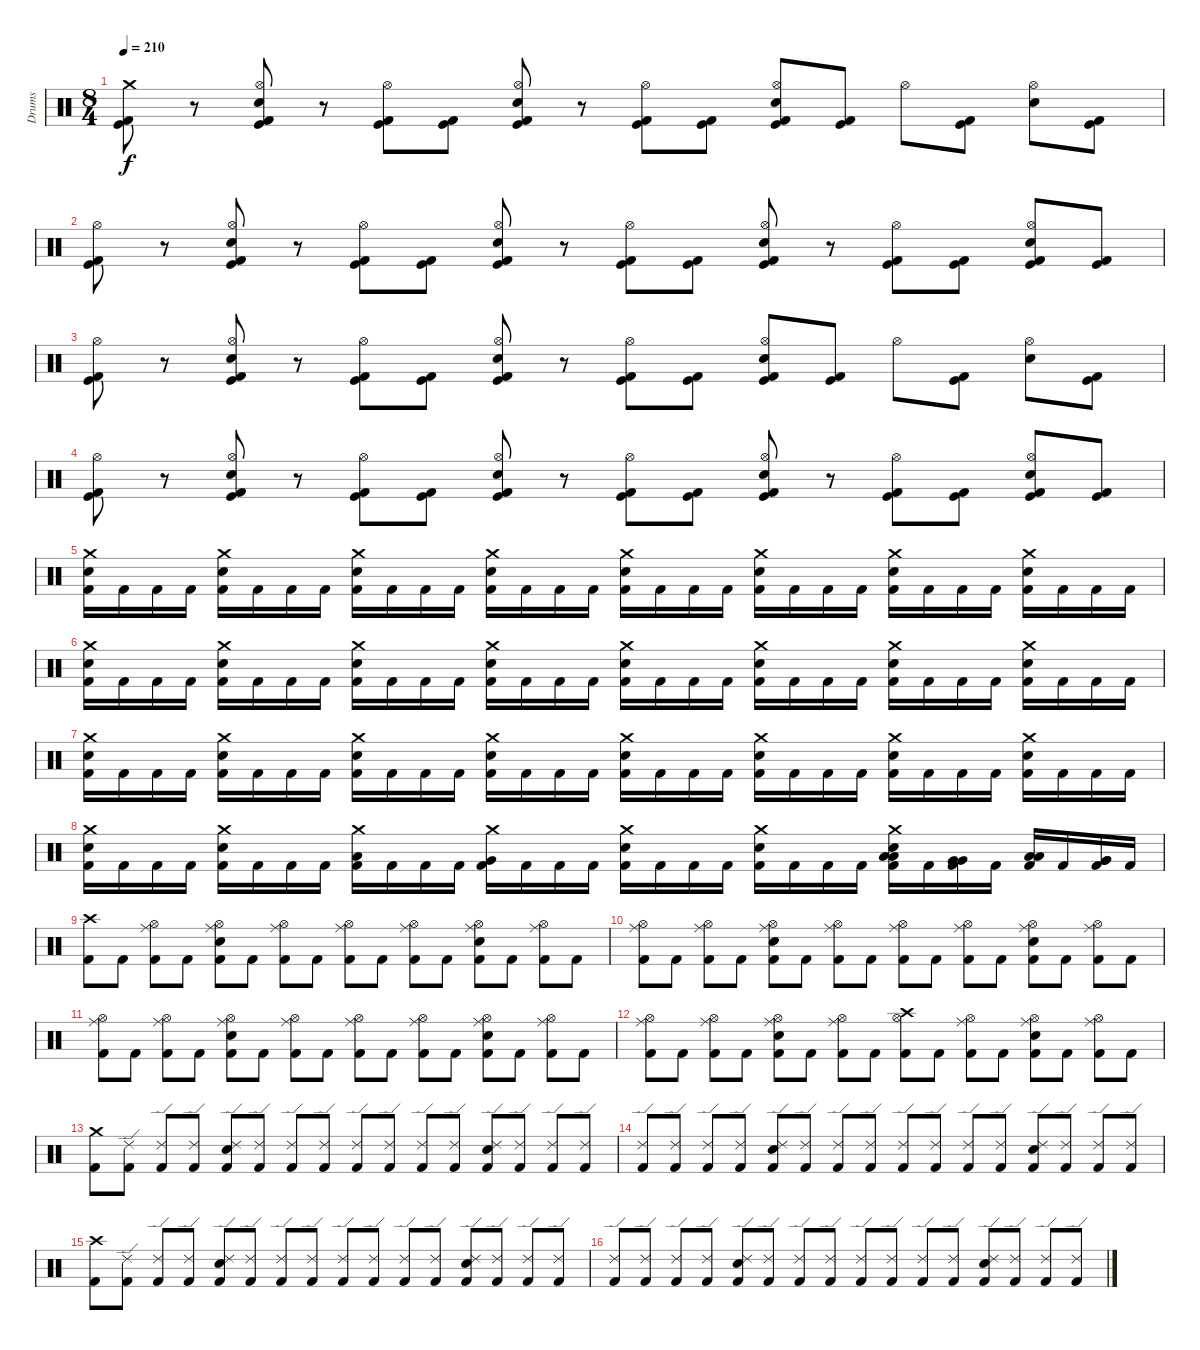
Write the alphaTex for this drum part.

\track ("Drums" "Drums") {instrument percussion}
\staff {score}
\articulation defaults
\ts (8 4)
\tempo 210
\clef neutral
\ks c
("Crash medium (hit)" "Kick (hit)" "Kick (hit) 2").8{dy f} r.8 ("Hi-Hat (open)" "Electric Snare (hit)" "Kick (hit)" "Kick (hit) 2").8 r.8 ("Hi-Hat (open)" "Kick (hit)" "Kick (hit) 2").8 ("Kick (hit)" "Kick (hit) 2").8 ("Hi-Hat (open)" "Electric Snare (hit)" "Kick (hit)" "Kick (hit) 2").8 r.8 ("Hi-Hat (open)" "Kick (hit)" "Kick (hit) 2").8 ("Kick (hit)" "Kick (hit) 2").8 ("Hi-Hat (open)" "Electric Snare (hit)" "Kick (hit)" "Kick (hit) 2").8 ("Kick (hit)" "Kick (hit) 2").8 "Hi-Hat (open)".8 ("Kick (hit)" "Kick (hit) 2").8 ("Hi-Hat (open)" "Electric Snare (hit)").8 ("Kick (hit)" "Kick (hit) 2").8 |
("Hi-Hat (open)" "Kick (hit)" "Kick (hit) 2").8 r.8 ("Hi-Hat (open)" "Electric Snare (hit)" "Kick (hit)" "Kick (hit) 2").8 r.8 ("Hi-Hat (open)" "Kick (hit)" "Kick (hit) 2").8 ("Kick (hit)" "Kick (hit) 2").8 ("Hi-Hat (open)" "Electric Snare (hit)" "Kick (hit)" "Kick (hit) 2").8 r.8 ("Hi-Hat (open)" "Kick (hit)" "Kick (hit) 2").8 ("Kick (hit)" "Kick (hit) 2").8 ("Hi-Hat (open)" "Electric Snare (hit)" "Kick (hit)" "Kick (hit) 2").8 r.8 ("Hi-Hat (open)" "Kick (hit)" "Kick (hit) 2").8 ("Kick (hit)" "Kick (hit) 2").8 ("Hi-Hat (open)" "Electric Snare (hit)" "Kick (hit)" "Kick (hit) 2").8 ("Kick (hit)" "Kick (hit) 2").8 |
("Hi-Hat (open)" "Kick (hit)" "Kick (hit) 2").8 r.8 ("Hi-Hat (open)" "Electric Snare (hit)" "Kick (hit)" "Kick (hit) 2").8 r.8 ("Hi-Hat (open)" "Kick (hit)" "Kick (hit) 2").8 ("Kick (hit)" "Kick (hit) 2").8 ("Hi-Hat (open)" "Electric Snare (hit)" "Kick (hit)" "Kick (hit) 2").8 r.8 ("Hi-Hat (open)" "Kick (hit)" "Kick (hit) 2").8 ("Kick (hit)" "Kick (hit) 2").8 ("Hi-Hat (open)" "Electric Snare (hit)" "Kick (hit)" "Kick (hit) 2").8 ("Kick (hit)" "Kick (hit) 2").8 "Hi-Hat (open)".8 ("Kick (hit)" "Kick (hit) 2").8 ("Hi-Hat (open)" "Electric Snare (hit)").8 ("Kick (hit)" "Kick (hit) 2").8 |
("Hi-Hat (open)" "Kick (hit)" "Kick (hit) 2").8 r.8 ("Hi-Hat (open)" "Electric Snare (hit)" "Kick (hit)" "Kick (hit) 2").8 r.8 ("Hi-Hat (open)" "Kick (hit)" "Kick (hit) 2").8 ("Kick (hit)" "Kick (hit) 2").8 ("Hi-Hat (open)" "Electric Snare (hit)" "Kick (hit)" "Kick (hit) 2").8 r.8 ("Hi-Hat (open)" "Kick (hit)" "Kick (hit) 2").8 ("Kick (hit)" "Kick (hit) 2").8 ("Hi-Hat (open)" "Electric Snare (hit)" "Kick (hit)" "Kick (hit) 2").8 r.8 ("Hi-Hat (open)" "Kick (hit)" "Kick (hit) 2").8 ("Kick (hit)" "Kick (hit) 2").8 ("Hi-Hat (open)" "Electric Snare (hit)" "Kick (hit)" "Kick (hit) 2").8 ("Kick (hit)" "Kick (hit) 2").8 |
("Crash medium (hit)" "Electric Snare (hit)" "Kick (hit) 2").16 "Kick (hit) 2".16 "Kick (hit) 2".16 "Kick (hit) 2".16 ("Crash medium (hit)" "Electric Snare (hit)" "Kick (hit) 2").16 "Kick (hit) 2".16 "Kick (hit) 2".16 "Kick (hit) 2".16 ("Crash medium (hit)" "Electric Snare (hit)" "Kick (hit) 2").16 "Kick (hit) 2".16 "Kick (hit) 2".16 "Kick (hit) 2".16 ("Crash medium (hit)" "Electric Snare (hit)" "Kick (hit) 2").16 "Kick (hit) 2".16 "Kick (hit) 2".16 "Kick (hit) 2".16 ("Crash medium (hit)" "Electric Snare (hit)" "Kick (hit) 2").16 "Kick (hit) 2".16 "Kick (hit) 2".16 "Kick (hit) 2".16 ("Crash medium (hit)" "Electric Snare (hit)" "Kick (hit) 2").16 "Kick (hit) 2".16 "Kick (hit) 2".16 "Kick (hit) 2".16 ("Crash medium (hit)" "Electric Snare (hit)" "Kick (hit) 2").16 "Kick (hit) 2".16 "Kick (hit) 2".16 "Kick (hit) 2".16 ("Crash medium (hit)" "Electric Snare (hit)" "Kick (hit) 2").16 "Kick (hit) 2".16 "Kick (hit) 2".16 "Kick (hit) 2".16 |
("Crash medium (hit)" "Electric Snare (hit)" "Kick (hit) 2").16 "Kick (hit) 2".16 "Kick (hit) 2".16 "Kick (hit) 2".16 ("Crash medium (hit)" "Electric Snare (hit)" "Kick (hit) 2").16 "Kick (hit) 2".16 "Kick (hit) 2".16 "Kick (hit) 2".16 ("Crash medium (hit)" "Electric Snare (hit)" "Kick (hit) 2").16 "Kick (hit) 2".16 "Kick (hit) 2".16 "Kick (hit) 2".16 ("Crash medium (hit)" "Electric Snare (hit)" "Kick (hit) 2").16 "Kick (hit) 2".16 "Kick (hit) 2".16 "Kick (hit) 2".16 ("Crash medium (hit)" "Electric Snare (hit)" "Kick (hit) 2").16 "Kick (hit) 2".16 "Kick (hit) 2".16 "Kick (hit) 2".16 ("Crash medium (hit)" "Electric Snare (hit)" "Kick (hit) 2").16 "Kick (hit) 2".16 "Kick (hit) 2".16 "Kick (hit) 2".16 ("Crash medium (hit)" "Electric Snare (hit)" "Kick (hit) 2").16 "Kick (hit) 2".16 "Kick (hit) 2".16 "Kick (hit) 2".16 ("Crash medium (hit)" "Electric Snare (hit)" "Kick (hit) 2").16 "Kick (hit) 2".16 "Kick (hit) 2".16 "Kick (hit) 2".16 |
("Crash medium (hit)" "Electric Snare (hit)" "Kick (hit) 2").16 "Kick (hit) 2".16 "Kick (hit) 2".16 "Kick (hit) 2".16 ("Crash medium (hit)" "Electric Snare (hit)" "Kick (hit) 2").16 "Kick (hit) 2".16 "Kick (hit) 2".16 "Kick (hit) 2".16 ("Crash medium (hit)" "Electric Snare (hit)" "Kick (hit) 2").16 "Kick (hit) 2".16 "Kick (hit) 2".16 "Kick (hit) 2".16 ("Crash medium (hit)" "Electric Snare (hit)" "Kick (hit) 2").16 "Kick (hit) 2".16 "Kick (hit) 2".16 "Kick (hit) 2".16 ("Crash medium (hit)" "Electric Snare (hit)" "Kick (hit) 2").16 "Kick (hit) 2".16 "Kick (hit) 2".16 "Kick (hit) 2".16 ("Crash medium (hit)" "Electric Snare (hit)" "Kick (hit) 2").16 "Kick (hit) 2".16 "Kick (hit) 2".16 "Kick (hit) 2".16 ("Crash medium (hit)" "Electric Snare (hit)" "Kick (hit) 2").16 "Kick (hit) 2".16 "Kick (hit) 2".16 "Kick (hit) 2".16 ("Crash medium (hit)" "Electric Snare (hit)" "Kick (hit) 2").16 "Kick (hit) 2".16 "Kick (hit) 2".16 "Kick (hit) 2".16 |
("Crash medium (hit)" "Electric Snare (hit)" "Kick (hit) 2").16 "Kick (hit) 2".16 "Kick (hit) 2".16 "Kick (hit) 2".16 ("Crash medium (hit)" "Electric Snare (hit)" "Kick (hit) 2").16 "Kick (hit) 2".16 "Kick (hit) 2".16 "Kick (hit) 2".16 ("Crash medium (hit)" "Low Tom (hit)" "Kick (hit) 2").16 "Kick (hit) 2".16 "Kick (hit) 2".16 "Kick (hit) 2".16 ("Crash medium (hit)" "Very Low Tom (hit)" "Kick (hit) 2").16 "Kick (hit) 2".16 "Kick (hit) 2".16 "Kick (hit) 2".16 ("Crash medium (hit)" "Electric Snare (hit)" "Kick (hit) 2").16 "Kick (hit) 2".16 "Kick (hit) 2".16 "Kick (hit) 2".16 ("Crash medium (hit)" "Electric Snare (hit)" "Kick (hit) 2").16 "Kick (hit) 2".16 "Kick (hit) 2".16 "Kick (hit) 2".16 ("Crash medium (hit)" "Electric Snare (hit)" "Low Tom (hit)" "Low Tom (hit)" "Kick (hit) 2").16 "Kick (hit) 2".16 ("Very Low Tom (hit)" "Very Low Tom (hit)" "Kick (hit) 2").16 "Kick (hit) 2".16 ("Low Floor Tom (hit)" "Low Floor Tom (hit)" "Kick (hit) 2").16 "Kick (hit) 2".16 ("Very Low Tom (hit)" "Very Low Tom (hit)" "Kick (hit) 2").16 "Kick (hit) 2".16 |
("Crash high (hit)" "Kick (hit) 2").8 "Kick (hit) 2".8 ("Ride (middle)" "Hi-Hat (open)" "Kick (hit) 2").8 "Kick (hit) 2".8 ("Ride (middle)" "Hi-Hat (open)" "Electric Snare (hit)" "Kick (hit) 2").8 "Kick (hit) 2".8 ("Ride (middle)" "Hi-Hat (open)" "Kick (hit) 2").8 "Kick (hit) 2".8 ("Ride (middle)" "Hi-Hat (open)" "Kick (hit) 2").8 "Kick (hit) 2".8 ("Ride (middle)" "Hi-Hat (open)" "Kick (hit) 2").8 "Kick (hit) 2".8 ("Ride (middle)" "Hi-Hat (open)" "Electric Snare (hit)" "Kick (hit) 2").8 "Kick (hit) 2".8 ("Ride (middle)" "Hi-Hat (open)" "Kick (hit) 2").8 "Kick (hit) 2".8 |
("Ride (middle)" "Hi-Hat (open)" "Kick (hit) 2").8 "Kick (hit) 2".8 ("Ride (middle)" "Hi-Hat (open)" "Kick (hit) 2").8 "Kick (hit) 2".8 ("Ride (middle)" "Hi-Hat (open)" "Electric Snare (hit)" "Kick (hit) 2").8 "Kick (hit) 2".8 ("Ride (middle)" "Hi-Hat (open)" "Kick (hit) 2").8 "Kick (hit) 2".8 ("Ride (middle)" "Hi-Hat (open)" "Kick (hit) 2").8 "Kick (hit) 2".8 ("Ride (middle)" "Hi-Hat (open)" "Kick (hit) 2").8 "Kick (hit) 2".8 ("Ride (middle)" "Hi-Hat (open)" "Electric Snare (hit)" "Kick (hit) 2").8 "Kick (hit) 2".8 ("Ride (middle)" "Hi-Hat (open)" "Kick (hit) 2").8 "Kick (hit) 2".8 |
("Ride (middle)" "Hi-Hat (open)" "Kick (hit) 2").8 "Kick (hit) 2".8 ("Ride (middle)" "Hi-Hat (open)" "Kick (hit) 2").8 "Kick (hit) 2".8 ("Ride (middle)" "Hi-Hat (open)" "Electric Snare (hit)" "Kick (hit) 2").8 "Kick (hit) 2".8 ("Ride (middle)" "Hi-Hat (open)" "Kick (hit) 2").8 "Kick (hit) 2".8 ("Ride (middle)" "Hi-Hat (open)" "Kick (hit) 2").8 "Kick (hit) 2".8 ("Ride (middle)" "Hi-Hat (open)" "Kick (hit) 2").8 "Kick (hit) 2".8 ("Ride (middle)" "Hi-Hat (open)" "Electric Snare (hit)" "Kick (hit) 2").8 "Kick (hit) 2".8 ("Ride (middle)" "Hi-Hat (open)" "Kick (hit) 2").8 "Kick (hit) 2".8 |
("Ride (middle)" "Hi-Hat (open)" "Kick (hit) 2").8 "Kick (hit) 2".8 ("Ride (middle)" "Hi-Hat (open)" "Kick (hit) 2").8 "Kick (hit) 2".8 ("Ride (middle)" "Hi-Hat (open)" "Electric Snare (hit)" "Kick (hit) 2").8 "Kick (hit) 2".8 ("Ride (middle)" "Hi-Hat (open)" "Kick (hit) 2").8 "Kick (hit) 2".8 ("Crash high (hit)" "Hi-Hat (open)" "Kick (hit) 2").8 "Kick (hit) 2".8 ("Ride (middle)" "Hi-Hat (open)" "Kick (hit) 2").8 "Kick (hit) 2".8 ("Ride (middle)" "Hi-Hat (open)" "Electric Snare (hit)" "Kick (hit) 2").8 "Kick (hit) 2".8 ("Ride (middle)" "Hi-Hat (open)" "Kick (hit) 2").8 "Kick (hit) 2".8 |
("Crash medium (hit)" "Kick (hit) 2").8 ("Ride (edge) 2" "Kick (hit) 2").8 ("Ride (edge) 2" "Kick (hit) 2").8 ("Ride (edge) 2" "Kick (hit) 2").8 ("Ride (edge) 2" "Electric Snare (hit)" "Kick (hit) 2").8 ("Ride (edge) 2" "Kick (hit) 2").8 ("Ride (edge) 2" "Kick (hit) 2").8 ("Ride (edge) 2" "Kick (hit) 2").8 ("Ride (edge) 2" "Kick (hit) 2").8 ("Ride (edge) 2" "Kick (hit) 2").8 ("Ride (edge) 2" "Kick (hit) 2").8 ("Ride (edge) 2" "Kick (hit) 2").8 ("Ride (edge) 2" "Electric Snare (hit)" "Kick (hit) 2").8 ("Ride (edge) 2" "Kick (hit) 2").8 ("Ride (edge) 2" "Kick (hit) 2").8 ("Ride (edge) 2" "Kick (hit) 2").8 |
("Ride (edge) 2" "Kick (hit) 2").8 ("Ride (edge) 2" "Kick (hit) 2").8 ("Ride (edge) 2" "Kick (hit) 2").8 ("Ride (edge) 2" "Kick (hit) 2").8 ("Ride (edge) 2" "Electric Snare (hit)" "Kick (hit) 2").8 ("Ride (edge) 2" "Kick (hit) 2").8 ("Ride (edge) 2" "Kick (hit) 2").8 ("Ride (edge) 2" "Kick (hit) 2").8 ("Ride (edge) 2" "Kick (hit) 2").8 ("Ride (edge) 2" "Kick (hit) 2").8 ("Ride (edge) 2" "Kick (hit) 2").8 ("Ride (edge) 2" "Kick (hit) 2").8 ("Ride (edge) 2" "Electric Snare (hit)" "Kick (hit) 2").8 ("Ride (edge) 2" "Kick (hit) 2").8 ("Ride (edge) 2" "Kick (hit) 2").8 ("Ride (edge) 2" "Kick (hit) 2").8 |
("Crash high (hit)" "Kick (hit) 2").8 ("Ride (edge) 2" "Kick (hit) 2").8 ("Ride (edge) 2" "Kick (hit) 2").8 ("Ride (edge) 2" "Kick (hit) 2").8 ("Ride (edge) 2" "Electric Snare (hit)" "Kick (hit) 2").8 ("Ride (edge) 2" "Kick (hit) 2").8 ("Ride (edge) 2" "Kick (hit) 2").8 ("Ride (edge) 2" "Kick (hit) 2").8 ("Ride (edge) 2" "Kick (hit) 2").8 ("Ride (edge) 2" "Kick (hit) 2").8 ("Ride (edge) 2" "Kick (hit) 2").8 ("Ride (edge) 2" "Kick (hit) 2").8 ("Ride (edge) 2" "Electric Snare (hit)" "Kick (hit) 2").8 ("Ride (edge) 2" "Kick (hit) 2").8 ("Ride (edge) 2" "Kick (hit) 2").8 ("Ride (edge) 2" "Kick (hit) 2").8 |
("Ride (edge) 2" "Kick (hit) 2").8 ("Ride (edge) 2" "Kick (hit) 2").8 ("Ride (edge) 2" "Kick (hit) 2").8 ("Ride (edge) 2" "Kick (hit) 2").8 ("Ride (edge) 2" "Electric Snare (hit)" "Kick (hit) 2").8 ("Ride (edge) 2" "Kick (hit) 2").8 ("Ride (edge) 2" "Kick (hit) 2").8 ("Ride (edge) 2" "Kick (hit) 2").8 ("Ride (edge) 2" "Kick (hit) 2").8 ("Ride (edge) 2" "Kick (hit) 2").8 ("Ride (edge) 2" "Kick (hit) 2").8 ("Ride (edge) 2" "Kick (hit) 2").8 ("Ride (edge) 2" "Electric Snare (hit)" "Kick (hit) 2").8 ("Ride (edge) 2" "Kick (hit) 2").8 ("Ride (edge) 2" "Kick (hit) 2").8 ("Ride (edge) 2" "Kick (hit) 2").8
